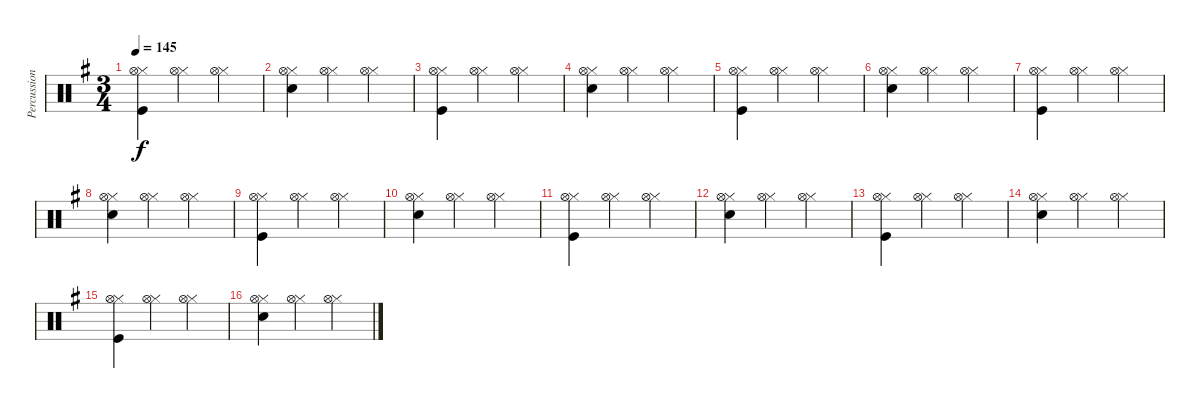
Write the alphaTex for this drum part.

\track ("Percussioni" "Percussion") {instrument percussion}
\staff {score}
\articulation defaults
\ts (3 4)
\tempo 145
\clef neutral
\ks g
("Hi-Hat (closed)" "Kick (hit)" "Hi-Hat (open)").4{dy f} ("Hi-Hat (closed)" "Hi-Hat (open)").4 ("Hi-Hat (closed)" "Hi-Hat (open)").4 |
("Hi-Hat (closed)" "Snare (hit) 2" "Hi-Hat (open)").4 ("Hi-Hat (closed)" "Hi-Hat (open)").4 ("Hi-Hat (closed)" "Hi-Hat (open)").4 |
("Hi-Hat (closed)" "Kick (hit)" "Hi-Hat (open)").4 ("Hi-Hat (closed)" "Hi-Hat (open)").4 ("Hi-Hat (closed)" "Hi-Hat (open)").4 |
("Hi-Hat (closed)" "Snare (hit) 2" "Hi-Hat (open)").4 ("Hi-Hat (closed)" "Hi-Hat (open)").4 ("Hi-Hat (closed)" "Hi-Hat (open)").4 |
("Hi-Hat (closed)" "Kick (hit)" "Hi-Hat (open)").4 ("Hi-Hat (closed)" "Hi-Hat (open)").4 ("Hi-Hat (closed)" "Hi-Hat (open)").4 |
("Hi-Hat (closed)" "Snare (hit) 2" "Hi-Hat (open)").4 ("Hi-Hat (closed)" "Hi-Hat (open)").4 ("Hi-Hat (closed)" "Hi-Hat (open)").4 |
("Hi-Hat (closed)" "Kick (hit)" "Hi-Hat (open)").4 ("Hi-Hat (closed)" "Hi-Hat (open)").4 ("Hi-Hat (closed)" "Hi-Hat (open)").4 |
("Hi-Hat (closed)" "Snare (hit) 2" "Hi-Hat (open)").4 ("Hi-Hat (closed)" "Hi-Hat (open)").4 ("Hi-Hat (closed)" "Hi-Hat (open)").4 |
("Hi-Hat (closed)" "Kick (hit)" "Hi-Hat (open)").4 ("Hi-Hat (closed)" "Hi-Hat (open)").4 ("Hi-Hat (closed)" "Hi-Hat (open)").4 |
("Hi-Hat (closed)" "Snare (hit) 2" "Hi-Hat (open)").4 ("Hi-Hat (closed)" "Hi-Hat (open)").4 ("Hi-Hat (closed)" "Hi-Hat (open)").4 |
("Hi-Hat (closed)" "Kick (hit)" "Hi-Hat (open)").4 ("Hi-Hat (closed)" "Hi-Hat (open)").4 ("Hi-Hat (closed)" "Hi-Hat (open)").4 |
("Hi-Hat (closed)" "Snare (hit) 2" "Hi-Hat (open)").4 ("Hi-Hat (closed)" "Hi-Hat (open)").4 ("Hi-Hat (closed)" "Hi-Hat (open)").4 |
("Hi-Hat (closed)" "Kick (hit)" "Hi-Hat (open)").4 ("Hi-Hat (closed)" "Hi-Hat (open)").4 ("Hi-Hat (closed)" "Hi-Hat (open)").4 |
("Hi-Hat (closed)" "Snare (hit) 2" "Hi-Hat (open)").4 ("Hi-Hat (closed)" "Hi-Hat (open)").4 ("Hi-Hat (closed)" "Hi-Hat (open)").4 |
("Hi-Hat (closed)" "Kick (hit)" "Hi-Hat (open)").4 ("Hi-Hat (closed)" "Hi-Hat (open)").4 ("Hi-Hat (closed)" "Hi-Hat (open)").4 |
("Hi-Hat (closed)" "Snare (hit) 2" "Hi-Hat (open)").4 ("Hi-Hat (closed)" "Hi-Hat (open)").4 ("Hi-Hat (closed)" "Hi-Hat (open)").4
